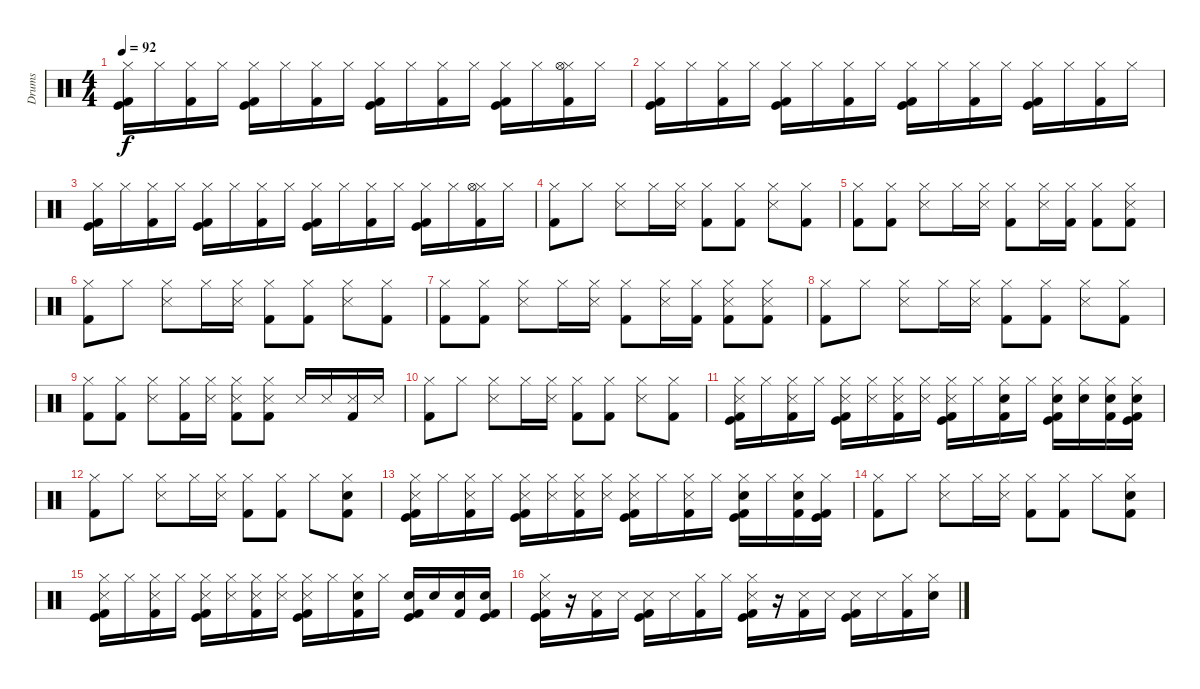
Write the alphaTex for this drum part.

\track ("Drums" "Drums") {instrument percussion}
\staff {score}
\articulation defaults
\ts (4 4)
\tempo 92
\clef neutral
\ks c
("Hi-Hat (closed)" "Kick (hit)" "Kick (hit) 2").16{dy f} "Hi-Hat (closed)".16 ("Hi-Hat (closed)" "Kick (hit) 2").16 "Hi-Hat (closed)".16 ("Hi-Hat (closed)" "Kick (hit)" "Kick (hit) 2").16 "Hi-Hat (closed)".16 ("Hi-Hat (closed)" "Kick (hit) 2").16 "Hi-Hat (closed)".16 ("Hi-Hat (closed)" "Kick (hit)" "Kick (hit) 2").16 "Hi-Hat (closed)".16 ("Hi-Hat (closed)" "Kick (hit) 2").16 "Hi-Hat (closed)".16 ("Hi-Hat (closed)" "Kick (hit)" "Kick (hit) 2").16 "Hi-Hat (closed)".16 ("Hi-Hat (closed)" "Hi-Hat (open)" "Kick (hit) 2").16 "Hi-Hat (closed)".16 |
("Hi-Hat (closed)" "Kick (hit)" "Kick (hit) 2").16 "Hi-Hat (closed)".16 ("Hi-Hat (closed)" "Kick (hit) 2").16 "Hi-Hat (closed)".16 ("Hi-Hat (closed)" "Kick (hit)" "Kick (hit) 2").16 "Hi-Hat (closed)".16 ("Hi-Hat (closed)" "Kick (hit) 2").16 "Hi-Hat (closed)".16 ("Hi-Hat (closed)" "Kick (hit)" "Kick (hit) 2").16 "Hi-Hat (closed)".16 ("Hi-Hat (closed)" "Kick (hit) 2").16 "Hi-Hat (closed)".16 ("Hi-Hat (closed)" "Kick (hit)" "Kick (hit) 2").16 "Hi-Hat (closed)".16 ("Hi-Hat (closed)" "Kick (hit) 2").16 "Hi-Hat (closed)".16 |
("Hi-Hat (closed)" "Kick (hit)" "Kick (hit) 2").16 "Hi-Hat (closed)".16 ("Hi-Hat (closed)" "Kick (hit) 2").16 "Hi-Hat (closed)".16 ("Hi-Hat (closed)" "Kick (hit)" "Kick (hit) 2").16 "Hi-Hat (closed)".16 ("Hi-Hat (closed)" "Kick (hit) 2").16 "Hi-Hat (closed)".16 ("Hi-Hat (closed)" "Kick (hit)" "Kick (hit) 2").16 "Hi-Hat (closed)".16 ("Hi-Hat (closed)" "Kick (hit) 2").16 "Hi-Hat (closed)".16 ("Hi-Hat (closed)" "Kick (hit)" "Kick (hit) 2").16 "Hi-Hat (closed)".16 ("Hi-Hat (closed)" "Hi-Hat (open)" "Kick (hit) 2").16 "Hi-Hat (closed)".16 |
("Hi-Hat (closed)" "Kick (hit) 2").8 "Hi-Hat (closed)".8 ("Hi-Hat (closed)" "Snare (side stick) 3").8 "Hi-Hat (closed)".16 ("Hi-Hat (closed)" "Snare (side stick) 3").16 ("Hi-Hat (closed)" "Kick (hit) 2").8 ("Hi-Hat (closed)" "Kick (hit) 2").8 ("Hi-Hat (closed)" "Snare (side stick) 3").8 ("Hi-Hat (closed)" "Kick (hit) 2").8 |
("Hi-Hat (closed)" "Kick (hit) 2").8 ("Hi-Hat (closed)" "Kick (hit) 2").8 ("Hi-Hat (closed)" "Snare (side stick) 3").8 "Hi-Hat (closed)".16 ("Hi-Hat (closed)" "Snare (side stick) 3").16 ("Hi-Hat (closed)" "Kick (hit) 2").8 ("Hi-Hat (closed)" "Snare (side stick) 3").16 ("Hi-Hat (closed)" "Kick (hit) 2").16 ("Hi-Hat (closed)" "Kick (hit) 2").8 ("Hi-Hat (closed)" "Snare (side stick) 3" "Kick (hit) 2").8 |
("Hi-Hat (closed)" "Kick (hit) 2").8 "Hi-Hat (closed)".8 ("Hi-Hat (closed)" "Snare (side stick) 3").8 "Hi-Hat (closed)".16 ("Hi-Hat (closed)" "Snare (side stick) 3").16 ("Hi-Hat (closed)" "Kick (hit) 2").8 ("Hi-Hat (closed)" "Kick (hit) 2").8 ("Hi-Hat (closed)" "Snare (side stick) 3").8 ("Hi-Hat (closed)" "Kick (hit) 2").8 |
("Hi-Hat (closed)" "Kick (hit) 2").8 ("Hi-Hat (closed)" "Kick (hit) 2").8 ("Hi-Hat (closed)" "Snare (side stick) 3").8 "Hi-Hat (closed)".16 ("Hi-Hat (closed)" "Snare (side stick) 3").16 ("Hi-Hat (closed)" "Kick (hit) 2").8 ("Hi-Hat (closed)" "Snare (side stick) 3").16 ("Hi-Hat (closed)" "Kick (hit) 2").16 ("Hi-Hat (closed)" "Snare (side stick) 3" "Kick (hit) 2").8 ("Hi-Hat (closed)" "Snare (side stick) 3" "Kick (hit) 2").8 |
("Hi-Hat (closed)" "Kick (hit) 2").8 "Hi-Hat (closed)".8 ("Hi-Hat (closed)" "Snare (side stick) 3").8 "Hi-Hat (closed)".16 ("Hi-Hat (closed)" "Snare (side stick) 3").16 ("Hi-Hat (closed)" "Kick (hit) 2").8 ("Hi-Hat (closed)" "Kick (hit) 2").8 ("Hi-Hat (closed)" "Snare (side stick) 3").8 ("Hi-Hat (closed)" "Kick (hit) 2").8 |
("Hi-Hat (closed)" "Kick (hit) 2").8 ("Hi-Hat (closed)" "Kick (hit) 2").8 ("Hi-Hat (closed)" "Snare (side stick) 3").8 ("Hi-Hat (closed)" "Kick (hit) 2").16 ("Hi-Hat (closed)" "Snare (side stick) 3").16 ("Hi-Hat (closed)" "Snare (side stick) 3" "Kick (hit) 2").8 ("Hi-Hat (closed)" "Snare (side stick) 3" "Kick (hit) 2").8 "Snare (side stick) 3".16 "Snare (side stick) 3".16 ("Snare (side stick) 3" "Kick (hit) 2").16 "Snare (side stick) 3".16 |
("Hi-Hat (closed)" "Kick (hit) 2").8 "Hi-Hat (closed)".8 ("Hi-Hat (closed)" "Snare (side stick) 3").8 "Hi-Hat (closed)".16 ("Hi-Hat (closed)" "Snare (side stick) 3").16 ("Hi-Hat (closed)" "Kick (hit) 2").8 ("Hi-Hat (closed)" "Kick (hit) 2").8 ("Hi-Hat (closed)" "Snare (side stick) 3").8 ("Hi-Hat (closed)" "Kick (hit) 2").8 |
("Hi-Hat (closed)" "Snare (side stick) 3" "Kick (hit)" "Kick (hit) 2").16 "Hi-Hat (closed)".16 ("Hi-Hat (closed)" "Snare (side stick) 3" "Kick (hit) 2").16 "Hi-Hat (closed)".16 ("Hi-Hat (closed)" "Snare (side stick) 3" "Kick (hit)" "Kick (hit) 2").16 ("Hi-Hat (closed)" "Snare (side stick) 3").16 ("Hi-Hat (closed)" "Snare (side stick) 3" "Kick (hit) 2").16 ("Hi-Hat (closed)" "Snare (side stick) 3").16 ("Hi-Hat (closed)" "Snare (side stick) 3" "Kick (hit)" "Kick (hit) 2").16 "Hi-Hat (closed)".16 ("Hi-Hat (closed)" "Snare (hit) 2" "Kick (hit) 2").16 "Hi-Hat (closed)".16 ("Hi-Hat (closed)" "Snare (hit) 2" "Kick (hit)" "Kick (hit) 2").16 ("Hi-Hat (closed)" "Snare (hit) 2").16 ("Hi-Hat (closed)" "Snare (hit) 2" "Kick (hit) 2").16 ("Hi-Hat (closed)" "Snare (hit) 2" "Kick (hit)" "Kick (hit) 2").16 |
("Hi-Hat (closed)" "Kick (hit) 2").8 "Hi-Hat (closed)".8 ("Hi-Hat (closed)" "Snare (side stick) 3").8 "Hi-Hat (closed)".16 ("Hi-Hat (closed)" "Snare (side stick) 3").16 ("Hi-Hat (closed)" "Kick (hit) 2").8 ("Hi-Hat (closed)" "Kick (hit) 2").8 "Hi-Hat (closed)".8 ("Hi-Hat (closed)" "Snare (hit) 2" "Kick (hit) 2").8 |
("Hi-Hat (closed)" "Snare (side stick) 3" "Kick (hit)" "Kick (hit) 2").16 "Hi-Hat (closed)".16 ("Hi-Hat (closed)" "Snare (side stick) 3" "Kick (hit) 2").16 "Hi-Hat (closed)".16 ("Hi-Hat (closed)" "Snare (side stick) 3" "Kick (hit)" "Kick (hit) 2").16 ("Hi-Hat (closed)" "Snare (side stick) 3").16 ("Hi-Hat (closed)" "Snare (side stick) 3" "Kick (hit) 2").16 ("Hi-Hat (closed)" "Snare (side stick) 3").16 ("Hi-Hat (closed)" "Snare (side stick) 3" "Kick (hit)" "Kick (hit) 2").16 "Hi-Hat (closed)".16 ("Hi-Hat (closed)" "Snare (side stick) 3" "Kick (hit) 2").16 "Hi-Hat (closed)".16 ("Hi-Hat (closed)" "Snare (hit) 2" "Kick (hit)" "Kick (hit) 2").16 "Hi-Hat (closed)".16 ("Hi-Hat (closed)" "Snare (hit) 2" "Kick (hit) 2").16 ("Hi-Hat (closed)" "Kick (hit)" "Kick (hit) 2").16 |
("Hi-Hat (closed)" "Kick (hit) 2").8 "Hi-Hat (closed)".8 ("Hi-Hat (closed)" "Snare (side stick) 3").8 "Hi-Hat (closed)".16 ("Hi-Hat (closed)" "Snare (side stick) 3").16 ("Hi-Hat (closed)" "Kick (hit) 2").8 ("Hi-Hat (closed)" "Kick (hit) 2").8 "Hi-Hat (closed)".8 ("Hi-Hat (closed)" "Snare (hit) 2" "Kick (hit) 2").8 |
("Hi-Hat (closed)" "Snare (side stick) 3" "Kick (hit)" "Kick (hit) 2").16 "Hi-Hat (closed)".16 ("Hi-Hat (closed)" "Snare (side stick) 3" "Kick (hit) 2").16 "Hi-Hat (closed)".16 ("Hi-Hat (closed)" "Snare (side stick) 3" "Kick (hit)" "Kick (hit) 2").16 ("Hi-Hat (closed)" "Snare (side stick) 3").16 ("Hi-Hat (closed)" "Snare (side stick) 3" "Kick (hit) 2").16 ("Hi-Hat (closed)" "Snare (side stick) 3").16 ("Hi-Hat (closed)" "Snare (side stick) 3" "Kick (hit)" "Kick (hit) 2").16 "Hi-Hat (closed)".16 ("Hi-Hat (closed)" "Snare (hit) 2" "Kick (hit) 2").16 "Hi-Hat (closed)".16 ("Snare (hit) 2" "Kick (hit)" "Kick (hit) 2").16 "Snare (hit) 2".16 ("Snare (hit) 2" "Kick (hit) 2").16 ("Snare (hit) 2" "Kick (hit)" "Kick (hit) 2").16 |
("Hi-Hat (closed)" "Snare (side stick) 3" "Kick (hit)" "Kick (hit) 2").16 r.16 ("Snare (side stick) 3" "Kick (hit) 2").16 "Snare (side stick) 3".16 ("Snare (side stick) 3" "Kick (hit)" "Kick (hit) 2").16 "Snare (side stick) 3".16 ("Hi-Hat (closed)" "Kick (hit) 2").16 "Hi-Hat (closed)".16 ("Hi-Hat (closed)" "Snare (side stick) 3" "Kick (hit)" "Kick (hit) 2").16 r.16 ("Snare (side stick) 3" "Kick (hit) 2").16 "Snare (side stick) 3".16 ("Snare (side stick) 3" "Kick (hit)" "Kick (hit) 2").16 "Snare (side stick) 3".16 ("Hi-Hat (closed)" "Kick (hit) 2").16 ("Hi-Hat (closed)" "Snare (hit) 2").16
